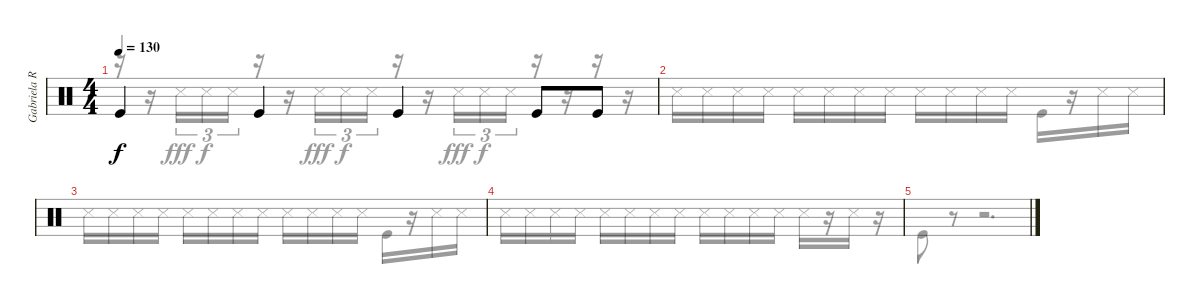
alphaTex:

\track ("Gabriela Rythmics" "Gabriela R") {instrument percussion}
\staff {score}
\articulation defaults
\voice
\ts (4 4)
\tempo 130
\clef neutral
\ks c "Kick (hit)".4{dy f} "Kick (hit)".4 "Kick (hit)".4 "Kick (hit)".8 "Kick (hit)".8
|
|
|
|
\voice
\clef neutral
\ks c
r.16{dy f} r.16 "Snare (side stick) 3".16{tu (3 2) dy fff} "Snare (side stick) 3".16{tu (3 2) dy f} "Snare (side stick) 3".16{tu (3 2)} r.16 r.16 "Snare (side stick) 3".16{tu (3 2) dy fff} "Snare (side stick) 3".16{tu (3 2) dy f} "Snare (side stick) 3".16{tu (3 2)} r.16 r.16 "Snare (side stick) 3".16{tu (3 2) dy fff} "Snare (side stick) 3".16{tu (3 2) dy f} "Snare (side stick) 3".16{tu (3 2)} r.16 r.16 r.16 r.16 |
"Snare (side stick) 3".16 "Snare (side stick) 3".16 "Snare (side stick) 3".16 "Snare (side stick) 3".16 "Snare (side stick) 3".16 "Snare (side stick) 3".16 "Snare (side stick) 3".16 "Snare (side stick) 3".16 "Snare (side stick) 3".16 "Snare (side stick) 3".16 "Snare (side stick) 3".16 "Snare (side stick) 3".16 "Kick (hit)".16 r.16 "Snare (side stick) 3".16 "Snare (side stick) 3".16 |
"Snare (side stick) 3".16 "Snare (side stick) 3".16 "Snare (side stick) 3".16 "Snare (side stick) 3".16 "Snare (side stick) 3".16 "Snare (side stick) 3".16 "Snare (side stick) 3".16 "Snare (side stick) 3".16 "Snare (side stick) 3".16 "Snare (side stick) 3".16 "Snare (side stick) 3".16 "Snare (side stick) 3".16 "Kick (hit)".16 r.16 "Snare (side stick) 3".16 "Snare (side stick) 3".16 |
"Snare (side stick) 3".16 "Snare (side stick) 3".16 "Snare (side stick) 3".16 "Snare (side stick) 3".16 "Snare (side stick) 3".16 "Snare (side stick) 3".16 "Snare (side stick) 3".16 "Snare (side stick) 3".16 "Snare (side stick) 3".16 "Snare (side stick) 3".16 "Snare (side stick) 3".16 "Snare (side stick) 3".16 "Snare (side stick) 3".16 r.16 "Snare (side stick) 3".16 r.16 |
"Kick (hit)".8 r.8 r.2{d}
